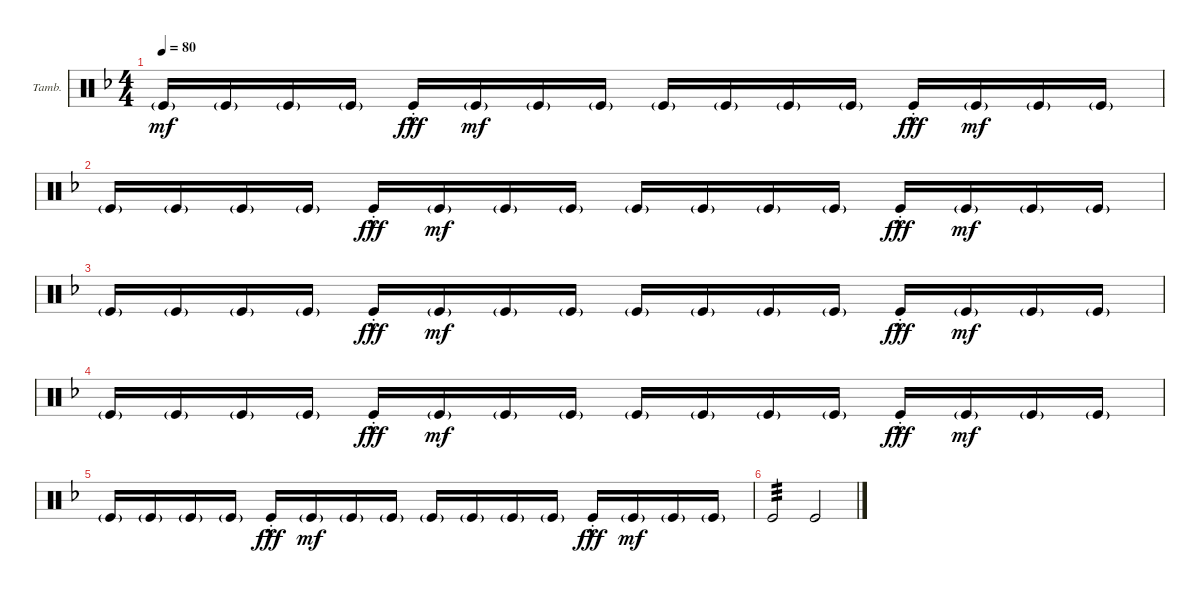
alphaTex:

\defaultSystemsLayout 4
\bracketExtendMode groupsimilarinstruments
\firstSystemTrackNameOrientation horizontal
\otherSystemsTrackNameOrientation horizontal
\track ("Tambourine" "Tamb.") {instrument percussion}
\staff {score}
\articulation defaults
\ts (4 4)
\tempo 80
\clef neutral
\ks f "Kick (hit)"{g}.16{dy mf} "Kick (hit)"{g}.16 "Kick (hit)"{g}.16 "Kick (hit)"{g}.16 "Kick (hit)"{hac st}.16{dy fff} "Kick (hit)"{g}.16{dy mf} "Kick (hit)"{g}.16 "Kick (hit)"{g}.16 "Kick (hit)"{g}.16 "Kick (hit)"{g}.16 "Kick (hit)"{g}.16 "Kick (hit)"{g}.16 "Kick (hit)"{hac st}.16{dy fff} "Kick (hit)"{g}.16{dy mf} "Kick (hit)"{g}.16 "Kick (hit)"{g}.16
|
"Kick (hit)"{g}.16 "Kick (hit)"{g}.16 "Kick (hit)"{g}.16 "Kick (hit)"{g}.16 "Kick (hit)"{hac st}.16{dy fff} "Kick (hit)"{g}.16{dy mf} "Kick (hit)"{g}.16 "Kick (hit)"{g}.16 "Kick (hit)"{g}.16 "Kick (hit)"{g}.16 "Kick (hit)"{g}.16 "Kick (hit)"{g}.16 "Kick (hit)"{hac st}.16{dy fff} "Kick (hit)"{g}.16{dy mf} "Kick (hit)"{g}.16 "Kick (hit)"{g}.16 |
"Kick (hit)"{g}.16 "Kick (hit)"{g}.16 "Kick (hit)"{g}.16 "Kick (hit)"{g}.16 "Kick (hit)"{hac st}.16{dy fff} "Kick (hit)"{g}.16{dy mf} "Kick (hit)"{g}.16 "Kick (hit)"{g}.16 "Kick (hit)"{g}.16 "Kick (hit)"{g}.16 "Kick (hit)"{g}.16 "Kick (hit)"{g}.16 "Kick (hit)"{hac st}.16{dy fff} "Kick (hit)"{g}.16{dy mf} "Kick (hit)"{g}.16 "Kick (hit)"{g}.16 |
"Kick (hit)"{g}.16 "Kick (hit)"{g}.16 "Kick (hit)"{g}.16 "Kick (hit)"{g}.16 "Kick (hit)"{hac st}.16{dy fff} "Kick (hit)"{g}.16{dy mf} "Kick (hit)"{g}.16 "Kick (hit)"{g}.16 "Kick (hit)"{g}.16 "Kick (hit)"{g}.16 "Kick (hit)"{g}.16 "Kick (hit)"{g}.16 "Kick (hit)"{hac st}.16{dy fff} "Kick (hit)"{g}.16{dy mf} "Kick (hit)"{g}.16 "Kick (hit)"{g}.16 |
"Kick (hit)"{g}.16 "Kick (hit)"{g}.16 "Kick (hit)"{g}.16 "Kick (hit)"{g}.16 "Kick (hit)"{hac st}.16{dy fff} "Kick (hit)"{g}.16{dy mf} "Kick (hit)"{g}.16 "Kick (hit)"{g}.16 "Kick (hit)"{g}.16 "Kick (hit)"{g}.16 "Kick (hit)"{g}.16 "Kick (hit)"{g}.16 "Kick (hit)"{hac st}.16{dy fff} "Kick (hit)"{g}.16{dy mf} "Kick (hit)"{g}.16 "Kick (hit)"{g}.16 |
"Kick (hit)".2{tp 3} "Kick (hit)".2
